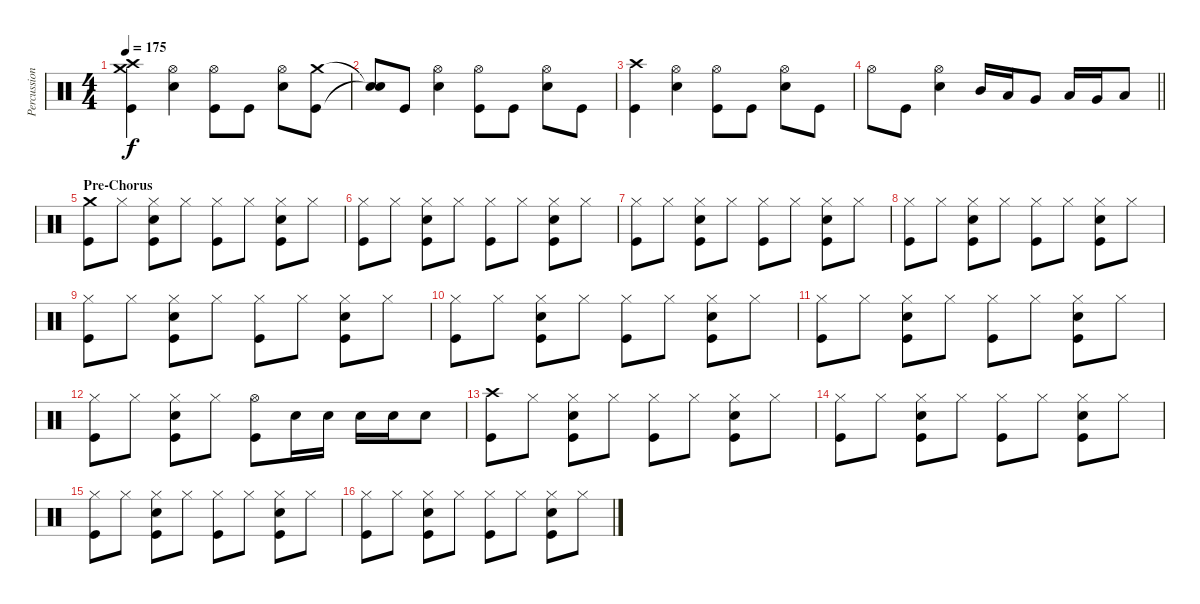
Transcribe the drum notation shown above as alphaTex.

\track ("Percussion" "Percussion") {instrument percussion}
\staff {score}
\articulation defaults
\ts (4 4)
\tempo 175
\clef neutral
\ks c
("Crash high (hit)" "Crash medium (hit)" "Kick (hit)").4{dy f} ("Hi-Hat (open)" "Electric Snare (hit)").4 ("Hi-Hat (open)" "Kick (hit)").8 "Kick (hit)".8 ("Hi-Hat (open)" "Electric Snare (hit)").8 ("Crash medium (hit)" "Kick (hit)").8 |
("Snare (hit)"{t} "Snare (hit)"{t}).8 "Kick (hit)".8 ("Hi-Hat (open)" "Electric Snare (hit)").4 ("Hi-Hat (open)" "Kick (hit)").8 "Kick (hit)".8 ("Hi-Hat (open)" "Electric Snare (hit)").8 "Kick (hit)".8 |
("Crash high (hit)" "Kick (hit)").4 ("Hi-Hat (open)" "Electric Snare (hit)").4 ("Hi-Hat (open)" "Kick (hit)").8 "Kick (hit)".8 ("Hi-Hat (open)" "Electric Snare (hit)").8 "Kick (hit)".8 |
\barLineRight lightlight "Hi-Hat (open)".8 "Kick (hit)".8
("Hi-Hat (open)" "Electric Snare (hit)").4 "Mid Tom (hit)".16 "Low Tom (hit)".16 "Very Low Tom (hit)".8 "Low Tom (hit)".16 "Very Low Tom (hit)".16 "Low Floor Tom (hit)".8 |
\section ("" "Pre-Chorus")
("Crash medium (hit)" "Kick (hit)").8 "Hi-Hat (closed)".8 ("Hi-Hat (closed)" "Electric Snare (hit)" "Kick (hit)").8 "Hi-Hat (closed)".8 ("Hi-Hat (closed)" "Kick (hit)").8 "Hi-Hat (closed)".8 ("Hi-Hat (closed)" "Electric Snare (hit)" "Kick (hit)").8 "Hi-Hat (closed)".8 |
("Hi-Hat (closed)" "Kick (hit)").8 "Hi-Hat (closed)".8 ("Hi-Hat (closed)" "Electric Snare (hit)" "Kick (hit)").8 "Hi-Hat (closed)".8 ("Hi-Hat (closed)" "Kick (hit)").8 "Hi-Hat (closed)".8 ("Hi-Hat (closed)" "Electric Snare (hit)" "Kick (hit)").8 "Hi-Hat (closed)".8 |
("Hi-Hat (closed)" "Kick (hit)").8 "Hi-Hat (closed)".8 ("Hi-Hat (closed)" "Electric Snare (hit)" "Kick (hit)").8 "Hi-Hat (closed)".8 ("Hi-Hat (closed)" "Kick (hit)").8 "Hi-Hat (closed)".8 ("Hi-Hat (closed)" "Electric Snare (hit)" "Kick (hit)").8 "Hi-Hat (closed)".8 |
("Hi-Hat (closed)" "Kick (hit)").8 "Hi-Hat (closed)".8 ("Hi-Hat (closed)" "Electric Snare (hit)" "Kick (hit)").8 "Hi-Hat (closed)".8 ("Hi-Hat (closed)" "Kick (hit)").8 "Hi-Hat (closed)".8 ("Hi-Hat (closed)" "Electric Snare (hit)" "Kick (hit)").8 "Hi-Hat (closed)".8 |
("Hi-Hat (closed)" "Kick (hit)").8 "Hi-Hat (closed)".8 ("Hi-Hat (closed)" "Electric Snare (hit)" "Kick (hit)").8 "Hi-Hat (closed)".8 ("Hi-Hat (closed)" "Kick (hit)").8 "Hi-Hat (closed)".8 ("Hi-Hat (closed)" "Electric Snare (hit)" "Kick (hit)").8 "Hi-Hat (closed)".8 |
("Hi-Hat (closed)" "Kick (hit)").8 "Hi-Hat (closed)".8 ("Hi-Hat (closed)" "Electric Snare (hit)" "Kick (hit)").8 "Hi-Hat (closed)".8 ("Hi-Hat (closed)" "Kick (hit)").8 "Hi-Hat (closed)".8 ("Hi-Hat (closed)" "Electric Snare (hit)" "Kick (hit)").8 "Hi-Hat (closed)".8 |
("Hi-Hat (closed)" "Kick (hit)").8 "Hi-Hat (closed)".8 ("Hi-Hat (closed)" "Electric Snare (hit)" "Kick (hit)").8 "Hi-Hat (closed)".8 ("Hi-Hat (closed)" "Kick (hit)").8 "Hi-Hat (closed)".8 ("Hi-Hat (closed)" "Electric Snare (hit)" "Kick (hit)").8 "Hi-Hat (closed)".8 |
("Hi-Hat (closed)" "Kick (hit)").8 "Hi-Hat (closed)".8 ("Hi-Hat (closed)" "Electric Snare (hit)" "Kick (hit)").8 "Hi-Hat (closed)".8 ("Hi-Hat (open)" "Kick (hit)").8 "Electric Snare (hit)".16 "Electric Snare (hit)".16 "Electric Snare (hit)".16 "Electric Snare (hit)".16 "Electric Snare (hit)".8 |
("Crash high (hit)" "Kick (hit)").8 "Hi-Hat (closed)".8 ("Hi-Hat (closed)" "Electric Snare (hit)" "Kick (hit)").8 "Hi-Hat (closed)".8 ("Hi-Hat (closed)" "Kick (hit)").8 "Hi-Hat (closed)".8 ("Hi-Hat (closed)" "Electric Snare (hit)" "Kick (hit)").8 "Hi-Hat (closed)".8 |
("Hi-Hat (closed)" "Kick (hit)").8 "Hi-Hat (closed)".8 ("Hi-Hat (closed)" "Electric Snare (hit)" "Kick (hit)").8 "Hi-Hat (closed)".8 ("Hi-Hat (closed)" "Kick (hit)").8 "Hi-Hat (closed)".8 ("Hi-Hat (closed)" "Electric Snare (hit)" "Kick (hit)").8 "Hi-Hat (closed)".8 |
("Hi-Hat (closed)" "Kick (hit)").8 "Hi-Hat (closed)".8 ("Hi-Hat (closed)" "Electric Snare (hit)" "Kick (hit)").8 "Hi-Hat (closed)".8 ("Hi-Hat (closed)" "Kick (hit)").8 "Hi-Hat (closed)".8 ("Hi-Hat (closed)" "Electric Snare (hit)" "Kick (hit)").8 "Hi-Hat (closed)".8 |
("Hi-Hat (closed)" "Kick (hit)").8 "Hi-Hat (closed)".8 ("Hi-Hat (closed)" "Electric Snare (hit)" "Kick (hit)").8 "Hi-Hat (closed)".8 ("Hi-Hat (closed)" "Kick (hit)").8 "Hi-Hat (closed)".8 ("Hi-Hat (closed)" "Electric Snare (hit)" "Kick (hit)").8 "Hi-Hat (closed)".8
